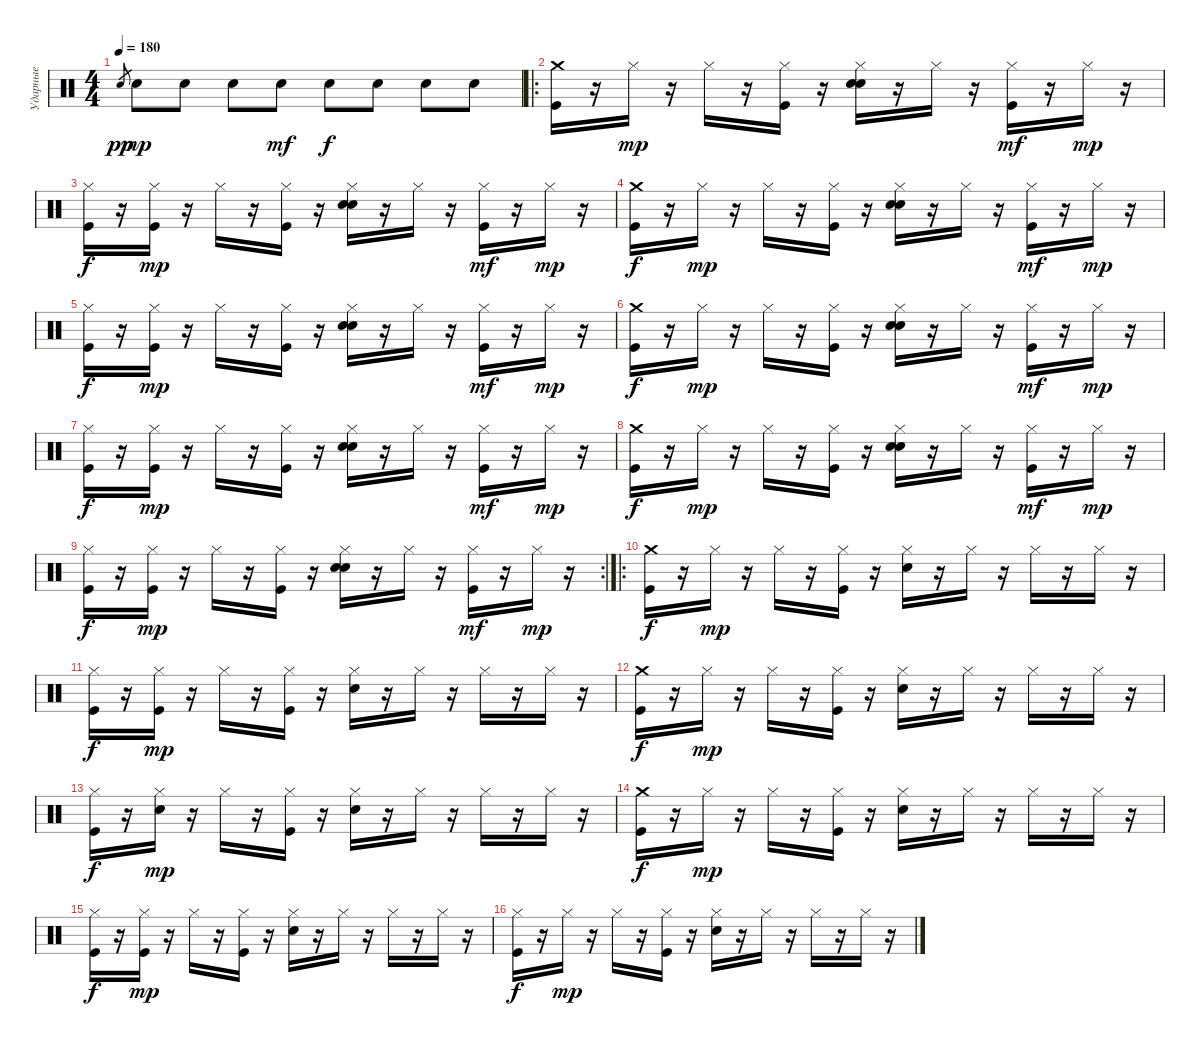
\track ("Ударные" "Ударные") {instrument percussion}
\staff {score}
\articulation defaults
\ts (4 4)
\tempo 180
\clef neutral
\ks c "Electric Snare (hit)".8{gr dy pp} "Electric Snare (hit)".8{dy mp} "Electric Snare (hit)".8 "Electric Snare (hit)".8 "Electric Snare (hit)".8{dy mf} "Electric Snare (hit)".8{dy f} "Electric Snare (hit)".8 "Electric Snare (hit)".8 "Electric Snare (hit)".8
|
\ro
("Crash medium (hit)" "Kick (hit)").16 r.16 "Hi-Hat (closed)".16{dy mp} r.16 "Hi-Hat (closed)".16 r.16 ("Hi-Hat (closed)" "Kick (hit)").16 r.16 ("Hi-Hat (closed)" "Electric Snare (hit)" "Hand Clap (hit)").16 r.16 "Hi-Hat (closed)".16 r.16 ("Hi-Hat (closed)" "Kick (hit)").16{dy mf} r.16 "Hi-Hat (closed)".16{dy mp} r.16 |
("Hi-Hat (closed)" "Kick (hit)").16{dy f} r.16 ("Hi-Hat (closed)" "Kick (hit)").16{dy mp} r.16 "Hi-Hat (closed)".16 r.16 ("Hi-Hat (closed)" "Kick (hit)").16 r.16 ("Hi-Hat (closed)" "Electric Snare (hit)" "Hand Clap (hit)").16 r.16 "Hi-Hat (closed)".16 r.16 ("Hi-Hat (closed)" "Kick (hit)").16{dy mf} r.16 "Hi-Hat (closed)".16{dy mp} r.16 |
("Crash medium (hit)" "Kick (hit)").16{dy f} r.16 "Hi-Hat (closed)".16{dy mp} r.16 "Hi-Hat (closed)".16 r.16 ("Hi-Hat (closed)" "Kick (hit)").16 r.16 ("Hi-Hat (closed)" "Electric Snare (hit)" "Hand Clap (hit)").16 r.16 "Hi-Hat (closed)".16 r.16 ("Hi-Hat (closed)" "Kick (hit)").16{dy mf} r.16 "Hi-Hat (closed)".16{dy mp} r.16 |
("Hi-Hat (closed)" "Kick (hit)").16{dy f} r.16 ("Hi-Hat (closed)" "Kick (hit)").16{dy mp} r.16 "Hi-Hat (closed)".16 r.16 ("Hi-Hat (closed)" "Kick (hit)").16 r.16 ("Hi-Hat (closed)" "Electric Snare (hit)" "Hand Clap (hit)").16 r.16 "Hi-Hat (closed)".16 r.16 ("Hi-Hat (closed)" "Kick (hit)").16{dy mf} r.16 "Hi-Hat (closed)".16{dy mp} r.16 |
("Crash medium (hit)" "Kick (hit)").16{dy f} r.16 "Hi-Hat (closed)".16{dy mp} r.16 "Hi-Hat (closed)".16 r.16 ("Hi-Hat (closed)" "Kick (hit)").16 r.16 ("Hi-Hat (closed)" "Electric Snare (hit)" "Hand Clap (hit)").16 r.16 "Hi-Hat (closed)".16 r.16 ("Hi-Hat (closed)" "Kick (hit)").16{dy mf} r.16 "Hi-Hat (closed)".16{dy mp} r.16 |
("Hi-Hat (closed)" "Kick (hit)").16{dy f} r.16 ("Hi-Hat (closed)" "Kick (hit)").16{dy mp} r.16 "Hi-Hat (closed)".16 r.16 ("Hi-Hat (closed)" "Kick (hit)").16 r.16 ("Hi-Hat (closed)" "Electric Snare (hit)" "Hand Clap (hit)").16 r.16 "Hi-Hat (closed)".16 r.16 ("Hi-Hat (closed)" "Kick (hit)").16{dy mf} r.16 "Hi-Hat (closed)".16{dy mp} r.16 |
("Crash medium (hit)" "Kick (hit)").16{dy f} r.16 "Hi-Hat (closed)".16{dy mp} r.16 "Hi-Hat (closed)".16 r.16 ("Hi-Hat (closed)" "Kick (hit)").16 r.16 ("Hi-Hat (closed)" "Electric Snare (hit)" "Hand Clap (hit)").16 r.16 "Hi-Hat (closed)".16 r.16 ("Hi-Hat (closed)" "Kick (hit)").16{dy mf} r.16 "Hi-Hat (closed)".16{dy mp} r.16 |
\rc 2
("Hi-Hat (closed)" "Kick (hit)").16{dy f} r.16 ("Hi-Hat (closed)" "Kick (hit)").16{dy mp} r.16 "Hi-Hat (closed)".16 r.16 ("Hi-Hat (closed)" "Kick (hit)").16 r.16 ("Hi-Hat (closed)" "Electric Snare (hit)" "Hand Clap (hit)").16 r.16 "Hi-Hat (closed)".16 r.16 ("Hi-Hat (closed)" "Kick (hit)").16{dy mf} r.16 "Hi-Hat (closed)".16{dy mp} r.16 |
\ro
("Crash medium (hit)" "Kick (hit)").16{dy f} r.16 "Hi-Hat (closed)".16{dy mp} r.16 "Hi-Hat (closed)".16 r.16 ("Hi-Hat (closed)" "Kick (hit)").16 r.16 ("Hi-Hat (closed)" "Electric Snare (hit)").16 r.16 "Hi-Hat (closed)".16 r.16 "Hi-Hat (closed)".16 r.16 "Hi-Hat (closed)".16 r.16 |
("Hi-Hat (closed)" "Kick (hit)").16{dy f} r.16 ("Hi-Hat (closed)" "Kick (hit)").16{dy mp} r.16 "Hi-Hat (closed)".16 r.16 ("Hi-Hat (closed)" "Kick (hit)").16 r.16 ("Hi-Hat (closed)" "Electric Snare (hit)").16 r.16 "Hi-Hat (closed)".16 r.16 "Hi-Hat (closed)".16 r.16 "Hi-Hat (closed)".16 r.16 |
("Crash medium (hit)" "Kick (hit)").16{dy f} r.16 "Hi-Hat (closed)".16{dy mp} r.16 "Hi-Hat (closed)".16 r.16 ("Hi-Hat (closed)" "Kick (hit)").16 r.16 ("Hi-Hat (closed)" "Electric Snare (hit)").16 r.16 "Hi-Hat (closed)".16 r.16 "Hi-Hat (closed)".16 r.16 "Hi-Hat (closed)".16 r.16 |
("Hi-Hat (closed)" "Kick (hit)").16{dy f} r.16 ("Hi-Hat (closed)" "Electric Snare (hit)").16{dy mp} r.16 "Hi-Hat (closed)".16 r.16 ("Hi-Hat (closed)" "Kick (hit)").16 r.16 ("Hi-Hat (closed)" "Electric Snare (hit)").16 r.16 "Hi-Hat (closed)".16 r.16 "Hi-Hat (closed)".16 r.16 "Hi-Hat (closed)".16 r.16 |
("Crash medium (hit)" "Kick (hit)").16{dy f} r.16 "Hi-Hat (closed)".16{dy mp} r.16 "Hi-Hat (closed)".16 r.16 ("Hi-Hat (closed)" "Kick (hit)").16 r.16 ("Hi-Hat (closed)" "Electric Snare (hit)").16 r.16 "Hi-Hat (closed)".16 r.16 "Hi-Hat (closed)".16 r.16 "Hi-Hat (closed)".16 r.16 |
("Hi-Hat (closed)" "Kick (hit)").16{dy f} r.16 ("Hi-Hat (closed)" "Kick (hit)").16{dy mp} r.16 "Hi-Hat (closed)".16 r.16 ("Hi-Hat (closed)" "Kick (hit)").16 r.16 ("Hi-Hat (closed)" "Electric Snare (hit)").16 r.16 "Hi-Hat (closed)".16 r.16 "Hi-Hat (closed)".16 r.16 "Hi-Hat (closed)".16 r.16 |
("Hi-Hat (closed)" "Kick (hit)").16{dy f} r.16 "Hi-Hat (closed)".16{dy mp} r.16 "Hi-Hat (closed)".16 r.16 ("Hi-Hat (closed)" "Kick (hit)").16 r.16 ("Hi-Hat (closed)" "Electric Snare (hit)").16 r.16 "Hi-Hat (closed)".16 r.16 "Hi-Hat (closed)".16 r.16 "Hi-Hat (closed)".16 r.16
